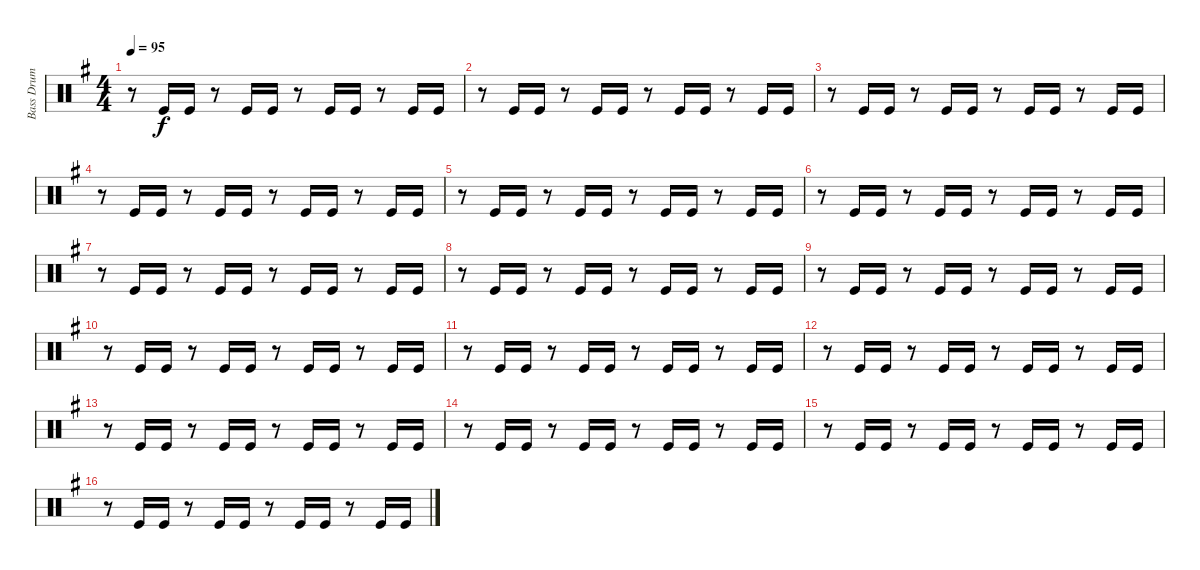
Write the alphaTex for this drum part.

\track ("Bass Drum" "Bass Drum") {instrument percussion}
\staff {score}
\articulation defaults
\ts (4 4)
\tempo 95
\clef neutral
\ks g
r.8{dy f} "Kick (hit)".16 "Kick (hit)".16 r.8 "Kick (hit)".16 "Kick (hit)".16 r.8 "Kick (hit)".16 "Kick (hit)".16 r.8 "Kick (hit)".16 "Kick (hit)".16 |
r.8 "Kick (hit)".16 "Kick (hit)".16 r.8 "Kick (hit)".16 "Kick (hit)".16 r.8 "Kick (hit)".16 "Kick (hit)".16 r.8 "Kick (hit)".16 "Kick (hit)".16 |
r.8 "Kick (hit)".16 "Kick (hit)".16 r.8 "Kick (hit)".16 "Kick (hit)".16 r.8 "Kick (hit)".16 "Kick (hit)".16 r.8 "Kick (hit)".16 "Kick (hit)".16 |
r.8 "Kick (hit)".16 "Kick (hit)".16 r.8 "Kick (hit)".16 "Kick (hit)".16 r.8 "Kick (hit)".16 "Kick (hit)".16 r.8 "Kick (hit)".16 "Kick (hit)".16 |
r.8 "Kick (hit)".16 "Kick (hit)".16 r.8 "Kick (hit)".16 "Kick (hit)".16 r.8 "Kick (hit)".16 "Kick (hit)".16 r.8 "Kick (hit)".16 "Kick (hit)".16 |
r.8 "Kick (hit)".16 "Kick (hit)".16 r.8 "Kick (hit)".16 "Kick (hit)".16 r.8 "Kick (hit)".16 "Kick (hit)".16 r.8 "Kick (hit)".16 "Kick (hit)".16 |
r.8 "Kick (hit)".16 "Kick (hit)".16 r.8 "Kick (hit)".16 "Kick (hit)".16 r.8 "Kick (hit)".16 "Kick (hit)".16 r.8 "Kick (hit)".16 "Kick (hit)".16 |
r.8 "Kick (hit)".16 "Kick (hit)".16 r.8 "Kick (hit)".16 "Kick (hit)".16 r.8 "Kick (hit)".16 "Kick (hit)".16 r.8 "Kick (hit)".16 "Kick (hit)".16 |
r.8 "Kick (hit)".16 "Kick (hit)".16 r.8 "Kick (hit)".16 "Kick (hit)".16 r.8 "Kick (hit)".16 "Kick (hit)".16 r.8 "Kick (hit)".16 "Kick (hit)".16 |
r.8 "Kick (hit)".16 "Kick (hit)".16 r.8 "Kick (hit)".16 "Kick (hit)".16 r.8 "Kick (hit)".16 "Kick (hit)".16 r.8 "Kick (hit)".16 "Kick (hit)".16 |
r.8 "Kick (hit)".16 "Kick (hit)".16 r.8 "Kick (hit)".16 "Kick (hit)".16 r.8 "Kick (hit)".16 "Kick (hit)".16 r.8 "Kick (hit)".16 "Kick (hit)".16 |
r.8 "Kick (hit)".16 "Kick (hit)".16 r.8 "Kick (hit)".16 "Kick (hit)".16 r.8 "Kick (hit)".16 "Kick (hit)".16 r.8 "Kick (hit)".16 "Kick (hit)".16 |
r.8 "Kick (hit)".16 "Kick (hit)".16 r.8 "Kick (hit)".16 "Kick (hit)".16 r.8 "Kick (hit)".16 "Kick (hit)".16 r.8 "Kick (hit)".16 "Kick (hit)".16 |
r.8 "Kick (hit)".16 "Kick (hit)".16 r.8 "Kick (hit)".16 "Kick (hit)".16 r.8 "Kick (hit)".16 "Kick (hit)".16 r.8 "Kick (hit)".16 "Kick (hit)".16 |
r.8 "Kick (hit)".16 "Kick (hit)".16 r.8 "Kick (hit)".16 "Kick (hit)".16 r.8 "Kick (hit)".16 "Kick (hit)".16 r.8 "Kick (hit)".16 "Kick (hit)".16 |
r.8 "Kick (hit)".16 "Kick (hit)".16 r.8 "Kick (hit)".16 "Kick (hit)".16 r.8 "Kick (hit)".16 "Kick (hit)".16 r.8 "Kick (hit)".16 "Kick (hit)".16
